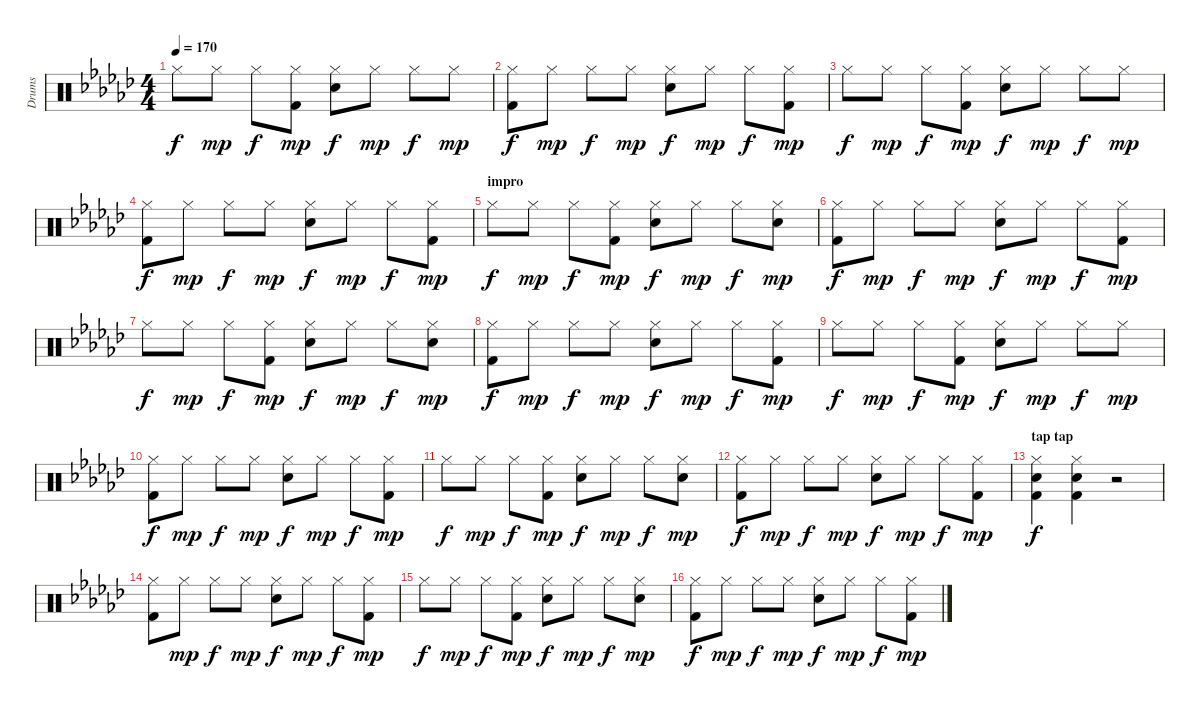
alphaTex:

\track ("Drums" "Drums") {instrument percussion}
\staff {score}
\articulation defaults
\ts (4 4)
\tempo 170
\clef neutral
\ks ebminor "Hi-Hat (closed)".8{dy f} "Hi-Hat (closed)".8{dy mp} "Hi-Hat (closed)".8{dy f}
("Hi-Hat (closed)" "Kick (hit) 2").8{dy mp} ("Hi-Hat (closed)" "Snare (hit) 2").8{dy f} "Hi-Hat (closed)".8{dy mp} "Hi-Hat (closed)".8{dy f} "Hi-Hat (closed)".8{dy mp} |
("Hi-Hat (closed)" "Kick (hit) 2").8{dy f} "Hi-Hat (closed)".8{dy mp} "Hi-Hat (closed)".8{dy f} "Hi-Hat (closed)".8{dy mp} ("Hi-Hat (closed)" "Snare (hit) 2").8{dy f} "Hi-Hat (closed)".8{dy mp} "Hi-Hat (closed)".8{dy f} ("Hi-Hat (closed)" "Kick (hit) 2").8{dy mp} |
"Hi-Hat (closed)".8{dy f} "Hi-Hat (closed)".8{dy mp} "Hi-Hat (closed)".8{dy f} ("Hi-Hat (closed)" "Kick (hit) 2").8{dy mp} ("Hi-Hat (closed)" "Snare (hit) 2").8{dy f} "Hi-Hat (closed)".8{dy mp} "Hi-Hat (closed)".8{dy f} "Hi-Hat (closed)".8{dy mp} |
("Hi-Hat (closed)" "Kick (hit) 2").8{dy f} "Hi-Hat (closed)".8{dy mp} "Hi-Hat (closed)".8{dy f} "Hi-Hat (closed)".8{dy mp} ("Hi-Hat (closed)" "Snare (hit) 2").8{dy f} "Hi-Hat (closed)".8{dy mp} "Hi-Hat (closed)".8{dy f} ("Hi-Hat (closed)" "Kick (hit) 2").8{dy mp} |
\section ("" "impro")
"Hi-Hat (closed)".8{dy f} "Hi-Hat (closed)".8{dy mp} "Hi-Hat (closed)".8{dy f} ("Hi-Hat (closed)" "Kick (hit) 2").8{dy mp} ("Hi-Hat (closed)" "Snare (hit) 2").8{dy f} "Hi-Hat (closed)".8{dy mp} "Hi-Hat (closed)".8{dy f} ("Hi-Hat (closed)" "Snare (hit) 2").8{dy mp} |
("Hi-Hat (closed)" "Kick (hit) 2").8{dy f} "Hi-Hat (closed)".8{dy mp} "Hi-Hat (closed)".8{dy f} "Hi-Hat (closed)".8{dy mp} ("Hi-Hat (closed)" "Snare (hit) 2").8{dy f} "Hi-Hat (closed)".8{dy mp} "Hi-Hat (closed)".8{dy f} ("Hi-Hat (closed)" "Kick (hit) 2").8{dy mp} |
"Hi-Hat (closed)".8{dy f} "Hi-Hat (closed)".8{dy mp} "Hi-Hat (closed)".8{dy f} ("Hi-Hat (closed)" "Kick (hit) 2").8{dy mp} ("Hi-Hat (closed)" "Snare (hit) 2").8{dy f} "Hi-Hat (closed)".8{dy mp} "Hi-Hat (closed)".8{dy f} ("Hi-Hat (closed)" "Snare (hit) 2").8{dy mp} |
("Hi-Hat (closed)" "Kick (hit) 2").8{dy f} "Hi-Hat (closed)".8{dy mp} "Hi-Hat (closed)".8{dy f} "Hi-Hat (closed)".8{dy mp} ("Hi-Hat (closed)" "Snare (hit) 2").8{dy f} "Hi-Hat (closed)".8{dy mp} "Hi-Hat (closed)".8{dy f} ("Hi-Hat (closed)" "Kick (hit) 2").8{dy mp} |
"Hi-Hat (closed)".8{dy f} "Hi-Hat (closed)".8{dy mp} "Hi-Hat (closed)".8{dy f} ("Hi-Hat (closed)" "Kick (hit) 2").8{dy mp} ("Hi-Hat (closed)" "Snare (hit) 2").8{dy f} "Hi-Hat (closed)".8{dy mp} "Hi-Hat (closed)".8{dy f} "Hi-Hat (closed)".8{dy mp} |
("Hi-Hat (closed)" "Kick (hit) 2").8{dy f} "Hi-Hat (closed)".8{dy mp} "Hi-Hat (closed)".8{dy f} "Hi-Hat (closed)".8{dy mp} ("Hi-Hat (closed)" "Snare (hit) 2").8{dy f} "Hi-Hat (closed)".8{dy mp} "Hi-Hat (closed)".8{dy f} ("Hi-Hat (closed)" "Kick (hit) 2").8{dy mp} |
"Hi-Hat (closed)".8{dy f} "Hi-Hat (closed)".8{dy mp} "Hi-Hat (closed)".8{dy f} ("Hi-Hat (closed)" "Kick (hit) 2").8{dy mp} ("Hi-Hat (closed)" "Snare (hit) 2").8{dy f} "Hi-Hat (closed)".8{dy mp} "Hi-Hat (closed)".8{dy f} ("Hi-Hat (closed)" "Snare (hit) 2").8{dy mp} |
("Hi-Hat (closed)" "Kick (hit) 2").8{dy f} "Hi-Hat (closed)".8{dy mp} "Hi-Hat (closed)".8{dy f} "Hi-Hat (closed)".8{dy mp} ("Hi-Hat (closed)" "Snare (hit) 2").8{dy f} "Hi-Hat (closed)".8{dy mp} "Hi-Hat (closed)".8{dy f} ("Hi-Hat (closed)" "Kick (hit) 2").8{dy mp} |
\section ("" "tap tap")
("Hi-Hat (closed)" "Electric Snare (hit)" "Kick (hit) 2").4{dy f} ("Hi-Hat (closed)" "Electric Snare (hit)" "Kick (hit) 2").4 r.2 |
("Hi-Hat (closed)" "Kick (hit) 2").8 "Hi-Hat (closed)".8{dy mp} "Hi-Hat (closed)".8{dy f} "Hi-Hat (closed)".8{dy mp} ("Hi-Hat (closed)" "Snare (hit) 2").8{dy f} "Hi-Hat (closed)".8{dy mp} "Hi-Hat (closed)".8{dy f} ("Hi-Hat (closed)" "Kick (hit) 2").8{dy mp} |
"Hi-Hat (closed)".8{dy f} "Hi-Hat (closed)".8{dy mp} "Hi-Hat (closed)".8{dy f} ("Hi-Hat (closed)" "Kick (hit) 2").8{dy mp} ("Hi-Hat (closed)" "Snare (hit) 2").8{dy f} "Hi-Hat (closed)".8{dy mp} "Hi-Hat (closed)".8{dy f} ("Hi-Hat (closed)" "Snare (hit) 2").8{dy mp} |
("Hi-Hat (closed)" "Kick (hit) 2").8{dy f} "Hi-Hat (closed)".8{dy mp} "Hi-Hat (closed)".8{dy f} "Hi-Hat (closed)".8{dy mp} ("Hi-Hat (closed)" "Snare (hit) 2").8{dy f} "Hi-Hat (closed)".8{dy mp} "Hi-Hat (closed)".8{dy f} ("Hi-Hat (closed)" "Kick (hit) 2").8{dy mp}
